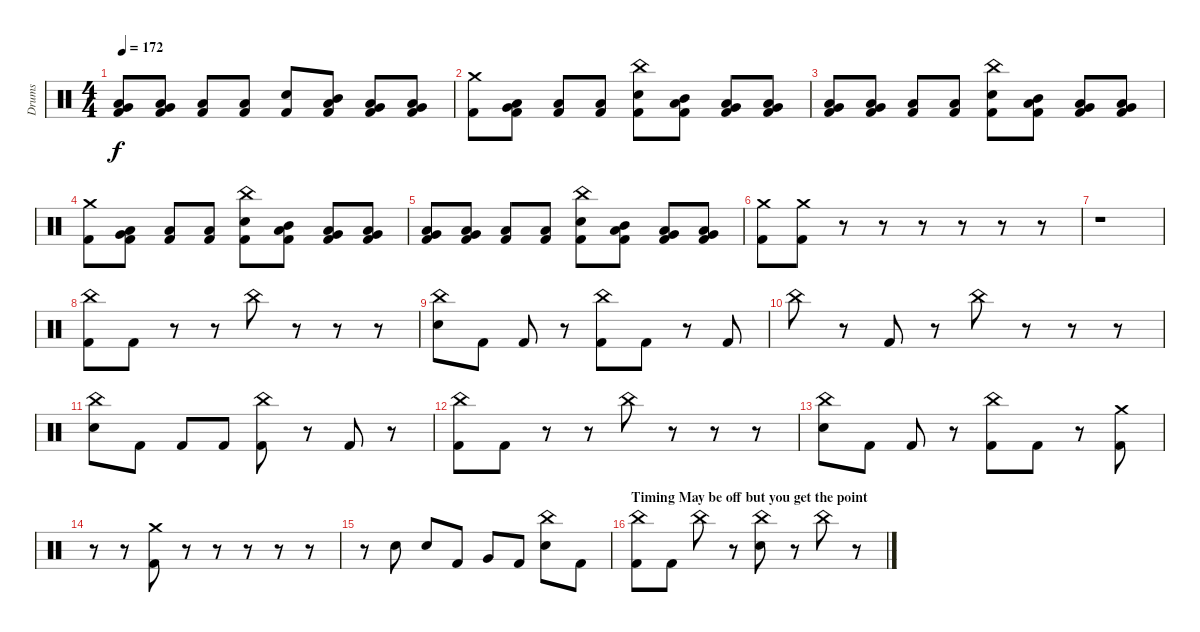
\track ("Drums" "Drums") {instrument percussion}
\staff {score}
\articulation defaults
\ts (4 4)
\tempo 172
\clef neutral
\ks c
("Low Tom (hit)" "Very Low Tom (hit)" "Kick (hit) 2").8{dy f} ("Very Low Tom (hit)" "Low Floor Tom (hit)" "Kick (hit) 2").8 ("Low Floor Tom (hit)" "Kick (hit) 2").8 ("Low Floor Tom (hit)" "Kick (hit) 2").8 ("Electric Snare (hit)" "Kick (hit) 2").8 ("Mid Tom (hit)" "Low Tom (hit)" "Kick (hit) 2").8 ("Low Tom (hit)" "Very Low Tom (hit)" "Kick (hit) 2").8 ("Very Low Tom (hit)" "Low Floor Tom (hit)" "Kick (hit) 2").8 |
("Crash medium (hit)" "Kick (hit) 2").8 ("Very Low Tom (hit)" "Low Floor Tom (hit)" "Kick (hit) 2").8 ("Low Floor Tom (hit)" "Kick (hit) 2").8 ("Low Floor Tom (hit)" "Kick (hit) 2").8 ("China (hit)" "Electric Snare (hit)" "Kick (hit) 2").8 ("Mid Tom (hit)" "Low Tom (hit)" "Kick (hit) 2").8 ("Low Tom (hit)" "Very Low Tom (hit)" "Kick (hit) 2").8 ("Very Low Tom (hit)" "Low Floor Tom (hit)" "Kick (hit) 2").8 |
("Low Tom (hit)" "Very Low Tom (hit)" "Kick (hit) 2").8 ("Very Low Tom (hit)" "Low Floor Tom (hit)" "Kick (hit) 2").8 ("Low Floor Tom (hit)" "Kick (hit) 2").8 ("Low Floor Tom (hit)" "Kick (hit) 2").8 ("China (hit)" "Electric Snare (hit)" "Kick (hit) 2").8 ("Mid Tom (hit)" "Low Tom (hit)" "Kick (hit) 2").8 ("Low Tom (hit)" "Very Low Tom (hit)" "Kick (hit) 2").8 ("Very Low Tom (hit)" "Low Floor Tom (hit)" "Kick (hit) 2").8 |
("Crash medium (hit)" "Kick (hit) 2").8 ("Very Low Tom (hit)" "Low Floor Tom (hit)" "Kick (hit) 2").8 ("Low Floor Tom (hit)" "Kick (hit) 2").8 ("Low Floor Tom (hit)" "Kick (hit) 2").8 ("China (hit)" "Electric Snare (hit)" "Kick (hit) 2").8 ("Mid Tom (hit)" "Low Tom (hit)" "Kick (hit) 2").8 ("Low Tom (hit)" "Very Low Tom (hit)" "Kick (hit) 2").8 ("Very Low Tom (hit)" "Low Floor Tom (hit)" "Kick (hit) 2").8 |
("Low Tom (hit)" "Very Low Tom (hit)" "Kick (hit) 2").8 ("Very Low Tom (hit)" "Low Floor Tom (hit)" "Kick (hit) 2").8 ("Low Floor Tom (hit)" "Kick (hit) 2").8 ("Low Floor Tom (hit)" "Kick (hit) 2").8 ("China (hit)" "Electric Snare (hit)" "Kick (hit) 2").8 ("Mid Tom (hit)" "Low Tom (hit)" "Kick (hit) 2").8 ("Low Tom (hit)" "Very Low Tom (hit)" "Kick (hit) 2").8 ("Very Low Tom (hit)" "Low Floor Tom (hit)" "Kick (hit) 2").8 |
("Crash medium (hit)" "Kick (hit) 2").8 ("Crash medium (hit)" "Kick (hit) 2").8 r.8 r.8 r.8 r.8 r.8 r.8 |
r.1 |
("China (hit)" "Kick (hit) 2").8 "Kick (hit) 2".8 r.8 r.8 "China (hit)".8 r.8 r.8 r.8 |
("China (hit)" "Electric Snare (hit)").8 "Kick (hit) 2".8 "Kick (hit) 2".8 r.8 ("China (hit)" "Kick (hit) 2").8 "Kick (hit) 2".8 r.8 "Kick (hit) 2".8 |
"China (hit)".8 r.8 "Kick (hit) 2".8 r.8 "China (hit)".8 r.8 r.8 r.8 |
("China (hit)" "Electric Snare (hit)").8 "Kick (hit) 2".8 "Kick (hit) 2".8 "Kick (hit) 2".8 ("China (hit)" "Kick (hit) 2").8 r.8 "Kick (hit) 2".8 r.8 |
("China (hit)" "Kick (hit) 2").8 "Kick (hit) 2".8 r.8 r.8 "China (hit)".8 r.8 r.8 r.8 |
("China (hit)" "Electric Snare (hit)").8 "Kick (hit) 2".8 "Kick (hit) 2".8 r.8 ("China (hit)" "Kick (hit) 2").8 "Kick (hit) 2".8 r.8 ("Crash medium (hit)" "Kick (hit) 2").8 |
r.8 r.8 ("Crash medium (hit)" "Kick (hit) 2").8 r.8 r.8 r.8 r.8 r.8 |
r.8 "Electric Snare (hit)".8 "Electric Snare (hit)".8 "Kick (hit) 2".8 "Very Low Tom (hit)".8 "Kick (hit) 2".8 ("China (hit)" "Electric Snare (hit)").8 "Kick (hit) 2".8 |
\section ("" "Timing May be off but you get the point")
("China (hit)" "Kick (hit) 2").8 "Kick (hit) 2".8 "China (hit)".8 r.8 ("China (hit)" "Electric Snare (hit)").8 r.8 "China (hit)".8 r.8
